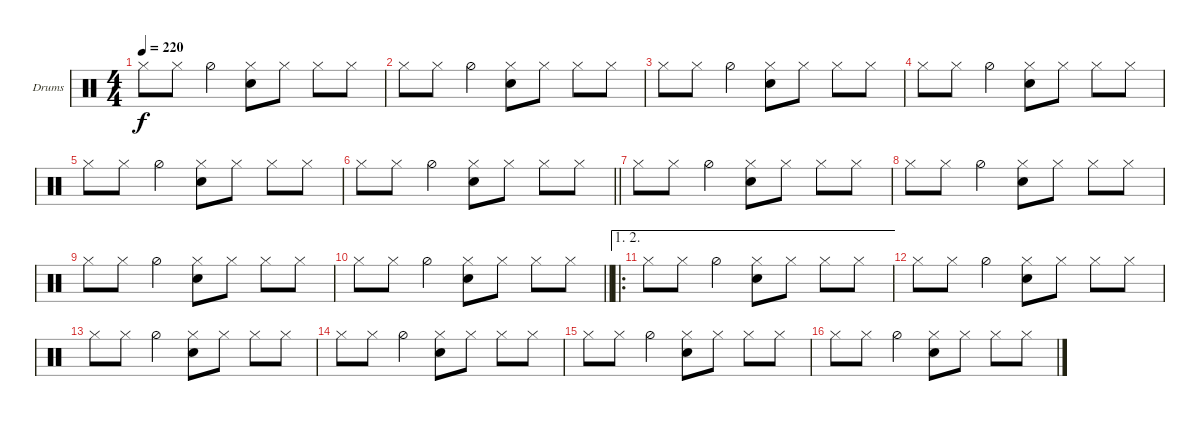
\bracketExtendMode groupsimilarinstruments
\firstSystemTrackNameOrientation horizontal
\otherSystemsTrackNameOrientation horizontal
\track ("Drums" "Drums") {instrument percussion}
\staff {score}
\articulation defaults
\ts (4 4)
\tempo 220
\clef neutral
\scale
0.333333
\ks c "Hi-Hat (closed)".8{dy f} "Hi-Hat (closed)".8 "Hi-Hat (half)".4
("Hi-Hat (closed)" "Snare (hit) 2").8 "Hi-Hat (closed)".8 "Hi-Hat (closed)".8 "Hi-Hat (closed)".8 |
\scale
0.333333 "Hi-Hat (closed)".8 "Hi-Hat (closed)".8 "Hi-Hat (half)".4 ("Hi-Hat (closed)" "Snare (hit) 2").8 "Hi-Hat (closed)".8 "Hi-Hat (closed)".8 "Hi-Hat (closed)".8 |
\scale
0.333333 "Hi-Hat (closed)".8 "Hi-Hat (closed)".8 "Hi-Hat (half)".4 ("Hi-Hat (closed)" "Snare (hit) 2").8 "Hi-Hat (closed)".8 "Hi-Hat (closed)".8 "Hi-Hat (closed)".8 |
\scale
0.333333 "Hi-Hat (closed)".8 "Hi-Hat (closed)".8 "Hi-Hat (half)".4 ("Hi-Hat (closed)" "Snare (hit) 2").8 "Hi-Hat (closed)".8 "Hi-Hat (closed)".8 "Hi-Hat (closed)".8 |
\scale
0.333333 "Hi-Hat (closed)".8 "Hi-Hat (closed)".8 "Hi-Hat (half)".4 ("Hi-Hat (closed)" "Snare (hit) 2").8 "Hi-Hat (closed)".8 "Hi-Hat (closed)".8 "Hi-Hat (closed)".8 |
\scale
0.333333
\barLineRight lightlight "Hi-Hat (closed)".8 "Hi-Hat (closed)".8 "Hi-Hat (half)".4
("Hi-Hat (closed)" "Snare (hit) 2").8 "Hi-Hat (closed)".8 "Hi-Hat (closed)".8 "Hi-Hat (closed)".8 |
\scale
0.333333 "Hi-Hat (closed)".8 "Hi-Hat (closed)".8 "Hi-Hat (half)".4 ("Hi-Hat (closed)" "Snare (hit) 2").8 "Hi-Hat (closed)".8 "Hi-Hat (closed)".8 "Hi-Hat (closed)".8 |
\scale
0.333333 "Hi-Hat (closed)".8 "Hi-Hat (closed)".8 "Hi-Hat (half)".4 ("Hi-Hat (closed)" "Snare (hit) 2").8 "Hi-Hat (closed)".8 "Hi-Hat (closed)".8 "Hi-Hat (closed)".8 |
\scale
0.311475 "Hi-Hat (closed)".8 "Hi-Hat (closed)".8 "Hi-Hat (half)".4 ("Hi-Hat (closed)" "Snare (hit) 2").8 "Hi-Hat (closed)".8 "Hi-Hat (closed)".8 "Hi-Hat (closed)".8 |
\scale
0.311475
\barLineRight lightlight "Hi-Hat (closed)".8 "Hi-Hat (closed)".8 "Hi-Hat (half)".4
("Hi-Hat (closed)" "Snare (hit) 2").8 "Hi-Hat (closed)".8 "Hi-Hat (closed)".8 "Hi-Hat (closed)".8 |
\ae (1 2)
\ro
\scale
0.377049 "Hi-Hat (closed)".8 "Hi-Hat (closed)".8 "Hi-Hat (half)".4 ("Hi-Hat (closed)" "Snare (hit) 2").8 "Hi-Hat (closed)".8 "Hi-Hat (closed)".8 "Hi-Hat (closed)".8 |
\scale
0.333333 "Hi-Hat (closed)".8 "Hi-Hat (closed)".8 "Hi-Hat (half)".4 ("Hi-Hat (closed)" "Snare (hit) 2").8 "Hi-Hat (closed)".8 "Hi-Hat (closed)".8 "Hi-Hat (closed)".8 |
\scale
0.333333 "Hi-Hat (closed)".8 "Hi-Hat (closed)".8 "Hi-Hat (half)".4 ("Hi-Hat (closed)" "Snare (hit) 2").8 "Hi-Hat (closed)".8 "Hi-Hat (closed)".8 "Hi-Hat (closed)".8 |
\scale
0.333333 "Hi-Hat (closed)".8 "Hi-Hat (closed)".8 "Hi-Hat (half)".4 ("Hi-Hat (closed)" "Snare (hit) 2").8 "Hi-Hat (closed)".8 "Hi-Hat (closed)".8 "Hi-Hat (closed)".8 |
\scale
0.333333 "Hi-Hat (closed)".8 "Hi-Hat (closed)".8 "Hi-Hat (half)".4 ("Hi-Hat (closed)" "Snare (hit) 2").8 "Hi-Hat (closed)".8 "Hi-Hat (closed)".8 "Hi-Hat (closed)".8 |
\scale
0.333333 "Hi-Hat (closed)".8 "Hi-Hat (closed)".8 "Hi-Hat (half)".4 ("Hi-Hat (closed)" "Snare (hit) 2").8 "Hi-Hat (closed)".8 "Hi-Hat (closed)".8 "Hi-Hat (closed)".8
